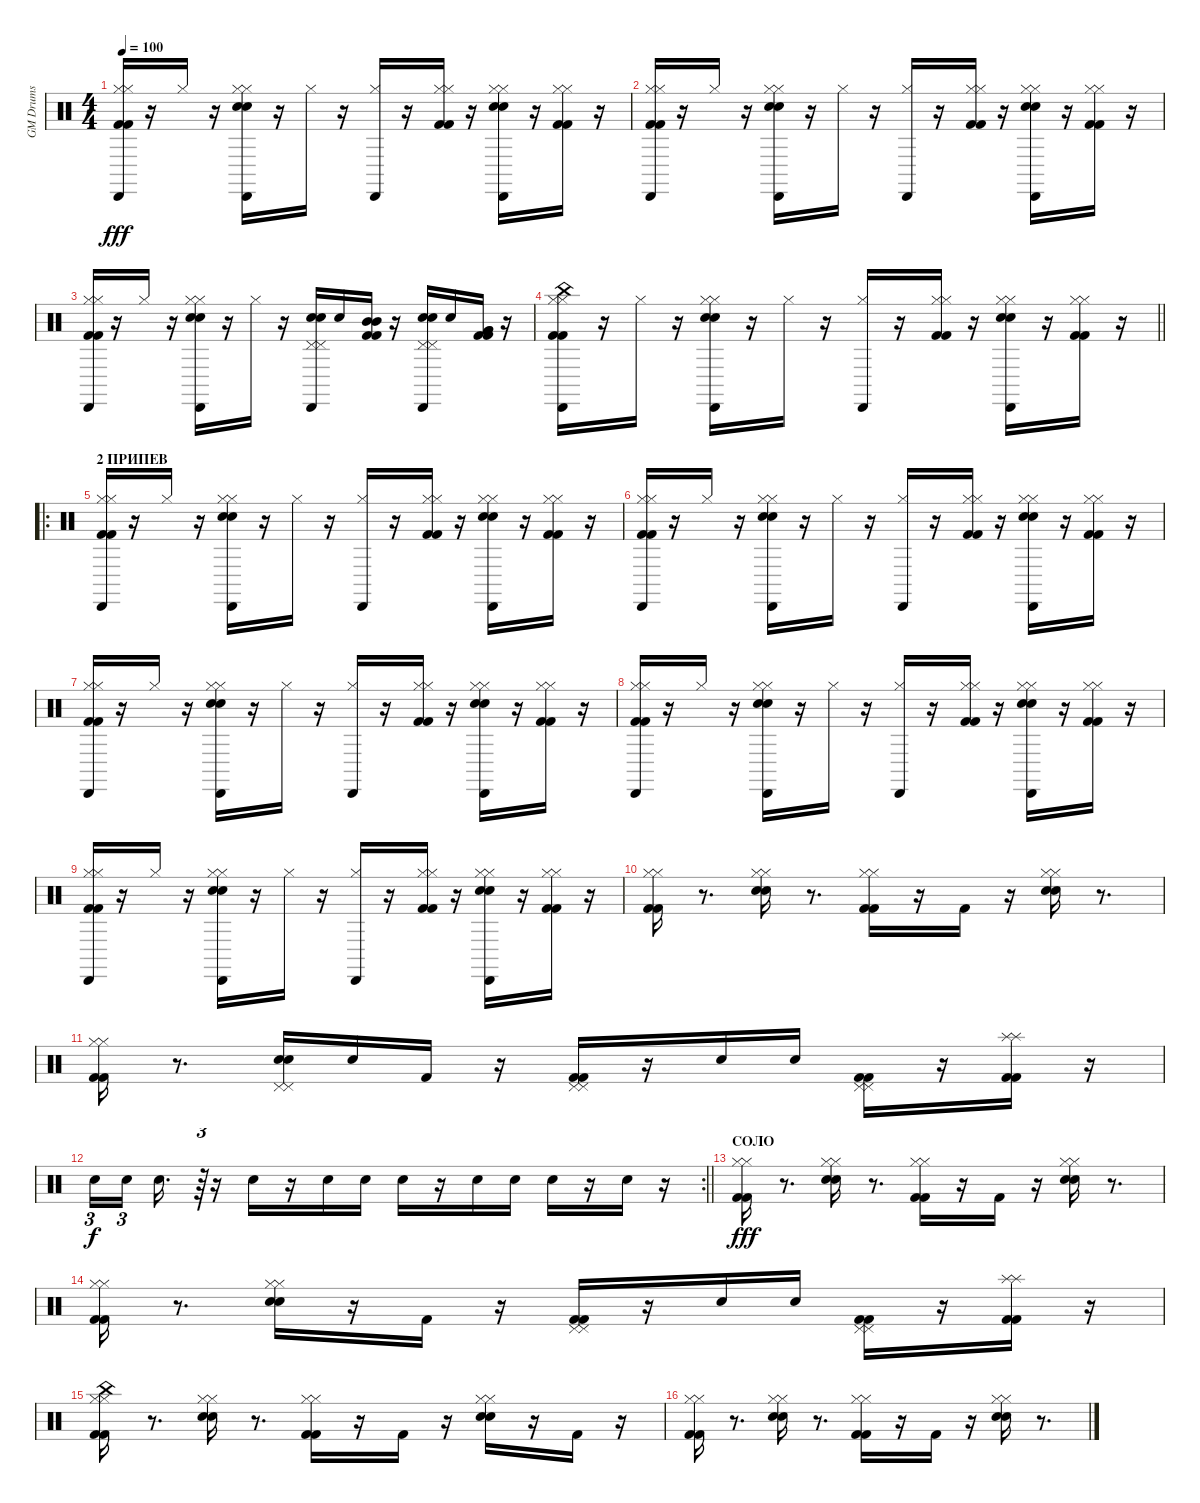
\track ("GM Drums" "GM Drums") {instrument percussion}
\staff {score}
\articulation defaults
\ts (4 4)
\tempo 100
\clef neutral
\ks c
("Kick (hit) 2" "Kick (hit) 2" "Hi-Hat (closed)" "Hi-Hat (closed)" "Cabasa (hit)").16{dy fff} r.16 "Hi-Hat (closed)".16 r.16 ("Snare (hit) 2" "Snare (hit) 2" "Hi-Hat (closed)" "Hi-Hat (closed)" "Cabasa (hit)").16 r.16 "Hi-Hat (closed)".16 r.16 ("Hi-Hat (closed)" "Cabasa (hit)").16 r.16 ("Kick (hit) 2" "Kick (hit) 2" "Hi-Hat (closed)" "Hi-Hat (closed)").16 r.16 ("Snare (hit) 2" "Snare (hit) 2" "Hi-Hat (closed)" "Hi-Hat (closed)" "Cabasa (hit)").16 r.16 ("Kick (hit) 2" "Kick (hit) 2" "Hi-Hat (closed)" "Hi-Hat (closed)").16 r.16 |
("Kick (hit) 2" "Kick (hit) 2" "Hi-Hat (closed)" "Hi-Hat (closed)" "Cabasa (hit)").16 r.16 "Hi-Hat (closed)".16 r.16 ("Snare (hit) 2" "Snare (hit) 2" "Hi-Hat (closed)" "Hi-Hat (closed)" "Cabasa (hit)").16 r.16 "Hi-Hat (closed)".16 r.16 ("Hi-Hat (closed)" "Cabasa (hit)").16 r.16 ("Kick (hit) 2" "Kick (hit) 2" "Hi-Hat (closed)" "Hi-Hat (closed)").16 r.16 ("Snare (hit) 2" "Snare (hit) 2" "Hi-Hat (closed)" "Hi-Hat (closed)" "Cabasa (hit)").16 r.16 ("Kick (hit) 2" "Kick (hit) 2" "Hi-Hat (closed)" "Hi-Hat (closed)").16 r.16 |
("Kick (hit) 2" "Kick (hit) 2" "Hi-Hat (closed)" "Hi-Hat (closed)" "Cabasa (hit)").16 r.16 "Hi-Hat (closed)".16 r.16 ("Snare (hit) 2" "Snare (hit) 2" "Hi-Hat (closed)" "Hi-Hat (closed)" "Cabasa (hit)").16 r.16 "Hi-Hat (closed)".16 r.16 ("Snare (hit) 2" "Snare (hit) 2" "Pedal Hi-Hat (hit)" "Pedal Hi-Hat (hit)" "Cabasa (hit)").16 "Snare (hit) 2".16 ("Kick (hit) 2" "Kick (hit) 2" "Mid Tom (hit)" "Mid Tom (hit)").16 r.16 ("Snare (hit) 2" "Snare (hit) 2" "Pedal Hi-Hat (hit)" "Pedal Hi-Hat (hit)" "Cabasa (hit)").16 "Snare (hit) 2".16 ("Kick (hit) 2" "Kick (hit) 2" "Very Low Tom (hit)" "Very Low Tom (hit)").16 r.16 |
\barLineRight lightlight
("Kick (hit) 2" "Kick (hit) 2" "Hi-Hat (closed)" "Hi-Hat (closed)" "China (hit)" "Cabasa (hit)").16 r.16 "Hi-Hat (closed)".16 r.16 ("Snare (hit) 2" "Snare (hit) 2" "Hi-Hat (closed)" "Hi-Hat (closed)" "Cabasa (hit)").16 r.16 "Hi-Hat (closed)".16 r.16 ("Hi-Hat (closed)" "Cabasa (hit)").16 r.16 ("Kick (hit) 2" "Kick (hit) 2" "Hi-Hat (closed)" "Hi-Hat (closed)").16 r.16 ("Snare (hit) 2" "Snare (hit) 2" "Hi-Hat (closed)" "Hi-Hat (closed)" "Cabasa (hit)").16 r.16 ("Kick (hit) 2" "Kick (hit) 2" "Hi-Hat (closed)" "Hi-Hat (closed)").16 r.16 |
\ro
\section ("" "2 ПРИПЕВ")
("Kick (hit) 2" "Kick (hit) 2" "Hi-Hat (closed)" "Hi-Hat (closed)" "Cabasa (hit)").16 r.16 "Hi-Hat (closed)".16 r.16 ("Snare (hit) 2" "Snare (hit) 2" "Hi-Hat (closed)" "Hi-Hat (closed)" "Cabasa (hit)").16 r.16 "Hi-Hat (closed)".16 r.16 ("Hi-Hat (closed)" "Cabasa (hit)").16 r.16 ("Kick (hit) 2" "Kick (hit) 2" "Hi-Hat (closed)" "Hi-Hat (closed)").16 r.16 ("Snare (hit) 2" "Snare (hit) 2" "Hi-Hat (closed)" "Hi-Hat (closed)" "Cabasa (hit)").16 r.16 ("Kick (hit) 2" "Kick (hit) 2" "Hi-Hat (closed)" "Hi-Hat (closed)").16 r.16 |
("Kick (hit) 2" "Kick (hit) 2" "Hi-Hat (closed)" "Hi-Hat (closed)" "Cabasa (hit)").16 r.16 "Hi-Hat (closed)".16 r.16 ("Snare (hit) 2" "Snare (hit) 2" "Hi-Hat (closed)" "Hi-Hat (closed)" "Cabasa (hit)").16 r.16 "Hi-Hat (closed)".16 r.16 ("Hi-Hat (closed)" "Cabasa (hit)").16 r.16 ("Kick (hit) 2" "Kick (hit) 2" "Hi-Hat (closed)" "Hi-Hat (closed)").16 r.16 ("Snare (hit) 2" "Snare (hit) 2" "Hi-Hat (closed)" "Hi-Hat (closed)" "Cabasa (hit)").16 r.16 ("Kick (hit) 2" "Kick (hit) 2" "Hi-Hat (closed)" "Hi-Hat (closed)").16 r.16 |
("Kick (hit) 2" "Kick (hit) 2" "Hi-Hat (closed)" "Hi-Hat (closed)" "Cabasa (hit)").16 r.16 "Hi-Hat (closed)".16 r.16 ("Snare (hit) 2" "Snare (hit) 2" "Hi-Hat (closed)" "Hi-Hat (closed)" "Cabasa (hit)").16 r.16 "Hi-Hat (closed)".16 r.16 ("Hi-Hat (closed)" "Cabasa (hit)").16 r.16 ("Kick (hit) 2" "Kick (hit) 2" "Hi-Hat (closed)" "Hi-Hat (closed)").16 r.16 ("Snare (hit) 2" "Snare (hit) 2" "Hi-Hat (closed)" "Hi-Hat (closed)" "Cabasa (hit)").16 r.16 ("Kick (hit) 2" "Kick (hit) 2" "Hi-Hat (closed)" "Hi-Hat (closed)").16 r.16 |
("Kick (hit) 2" "Kick (hit) 2" "Hi-Hat (closed)" "Hi-Hat (closed)" "Cabasa (hit)").16 r.16 "Hi-Hat (closed)".16 r.16 ("Snare (hit) 2" "Snare (hit) 2" "Hi-Hat (closed)" "Hi-Hat (closed)" "Cabasa (hit)").16 r.16 "Hi-Hat (closed)".16 r.16 ("Hi-Hat (closed)" "Cabasa (hit)").16 r.16 ("Kick (hit) 2" "Kick (hit) 2" "Hi-Hat (closed)" "Hi-Hat (closed)").16 r.16 ("Snare (hit) 2" "Snare (hit) 2" "Hi-Hat (closed)" "Hi-Hat (closed)" "Cabasa (hit)").16 r.16 ("Kick (hit) 2" "Kick (hit) 2" "Hi-Hat (closed)" "Hi-Hat (closed)").16 r.16 |
("Kick (hit) 2" "Kick (hit) 2" "Hi-Hat (closed)" "Hi-Hat (closed)" "Cabasa (hit)").16 r.16 "Hi-Hat (closed)".16 r.16 ("Snare (hit) 2" "Snare (hit) 2" "Hi-Hat (closed)" "Hi-Hat (closed)" "Cabasa (hit)").16 r.16 "Hi-Hat (closed)".16 r.16 ("Hi-Hat (closed)" "Cabasa (hit)").16 r.16 ("Kick (hit) 2" "Kick (hit) 2" "Hi-Hat (closed)" "Hi-Hat (closed)").16 r.16 ("Snare (hit) 2" "Snare (hit) 2" "Hi-Hat (closed)" "Hi-Hat (closed)" "Cabasa (hit)").16 r.16 ("Kick (hit) 2" "Kick (hit) 2" "Hi-Hat (closed)" "Hi-Hat (closed)").16 r.16 |
("Kick (hit) 2" "Kick (hit) 2" "Hi-Hat (closed)" "Hi-Hat (closed)").16 r.8{d} ("Snare (hit) 2" "Snare (hit) 2" "Hi-Hat (closed)" "Hi-Hat (closed)").16 r.8{d} ("Kick (hit) 2" "Kick (hit) 2" "Hi-Hat (closed)" "Hi-Hat (closed)").16 r.16 "Kick (hit) 2".16 r.16 ("Snare (hit) 2" "Snare (hit) 2" "Hi-Hat (closed)" "Hi-Hat (closed)").16 r.8{d} |
("Kick (hit) 2" "Kick (hit) 2" "Hi-Hat (closed)" "Hi-Hat (closed)").16 r.8{d} ("Snare (hit) 2" "Snare (hit) 2" "Pedal Hi-Hat (hit)" "Pedal Hi-Hat (hit)").16 "Snare (hit) 2".16 "Kick (hit) 2".16 r.16 ("Kick (hit) 2" "Kick (hit) 2" "Pedal Hi-Hat (hit)" "Pedal Hi-Hat (hit)").16 r.16 "Snare (hit) 2".16 "Snare (hit) 2".16 ("Kick (hit) 2" "Kick (hit) 2" "Pedal Hi-Hat (hit)" "Pedal Hi-Hat (hit)").16 r.16 ("Kick (hit) 2" "Kick (hit) 2" "Splash (hit)" "Splash (hit)").16 r.16 |
\rc 2
\barLineRight lightlight "Electric Snare (hit)".16{tu (3 2) dy f} "Electric Snare (hit)".16{tu (3 2) beam splitsecondary} "Electric Snare (hit)".16{d}
r.64{tu (3 2)} r.16 "Electric Snare (hit)".16 r.16 "Electric Snare (hit)".16 "Electric Snare (hit)".16 "Electric Snare (hit)".16 r.16 "Snare (hit) 2".16 "Snare (hit) 2".16 "Snare (hit) 2".16 r.16 "Snare (hit) 2".16 r.16 |
\section ("" "СОЛО")
("Kick (hit) 2" "Kick (hit) 2" "Hi-Hat (closed)" "Hi-Hat (closed)").16{dy fff} r.8{d} ("Snare (hit) 2" "Snare (hit) 2" "Hi-Hat (closed)" "Hi-Hat (closed)").16 r.8{d} ("Kick (hit) 2" "Kick (hit) 2" "Hi-Hat (closed)" "Hi-Hat (closed)").16 r.16 "Kick (hit) 2".16 r.16 ("Snare (hit) 2" "Snare (hit) 2" "Hi-Hat (closed)" "Hi-Hat (closed)").16 r.8{d} |
("Kick (hit) 2" "Kick (hit) 2" "Hi-Hat (closed)" "Hi-Hat (closed)").16 r.8{d} ("Snare (hit) 2" "Snare (hit) 2" "Hi-Hat (closed)" "Hi-Hat (closed)").16 r.16 "Kick (hit) 2".16 r.16 ("Kick (hit) 2" "Kick (hit) 2" "Pedal Hi-Hat (hit)" "Pedal Hi-Hat (hit)").16 r.16 "Snare (hit) 2".16 "Snare (hit) 2".16 ("Kick (hit) 2" "Kick (hit) 2" "Pedal Hi-Hat (hit)" "Pedal Hi-Hat (hit)").16 r.16 ("Kick (hit) 2" "Kick (hit) 2" "Splash (hit)" "Splash (hit)").16 r.16 |
("Kick (hit) 2" "Kick (hit) 2" "Hi-Hat (closed)" "Hi-Hat (closed)" "China (hit)").16 r.8{d} ("Snare (hit) 2" "Snare (hit) 2" "Hi-Hat (closed)" "Hi-Hat (closed)").16 r.8{d} ("Kick (hit) 2" "Kick (hit) 2" "Hi-Hat (closed)" "Hi-Hat (closed)").16 r.16 "Kick (hit) 2".16 r.16 ("Snare (hit) 2" "Snare (hit) 2" "Hi-Hat (closed)" "Hi-Hat (closed)").16 r.16 "Kick (hit) 2".16 r.16 |
("Kick (hit) 2" "Kick (hit) 2" "Hi-Hat (closed)" "Hi-Hat (closed)").16 r.8{d} ("Snare (hit) 2" "Snare (hit) 2" "Hi-Hat (closed)" "Hi-Hat (closed)").16 r.8{d} ("Kick (hit) 2" "Kick (hit) 2" "Hi-Hat (closed)" "Hi-Hat (closed)").16 r.16 "Kick (hit) 2".16 r.16 ("Snare (hit) 2" "Snare (hit) 2" "Hi-Hat (closed)" "Hi-Hat (closed)").16 r.8{d}
